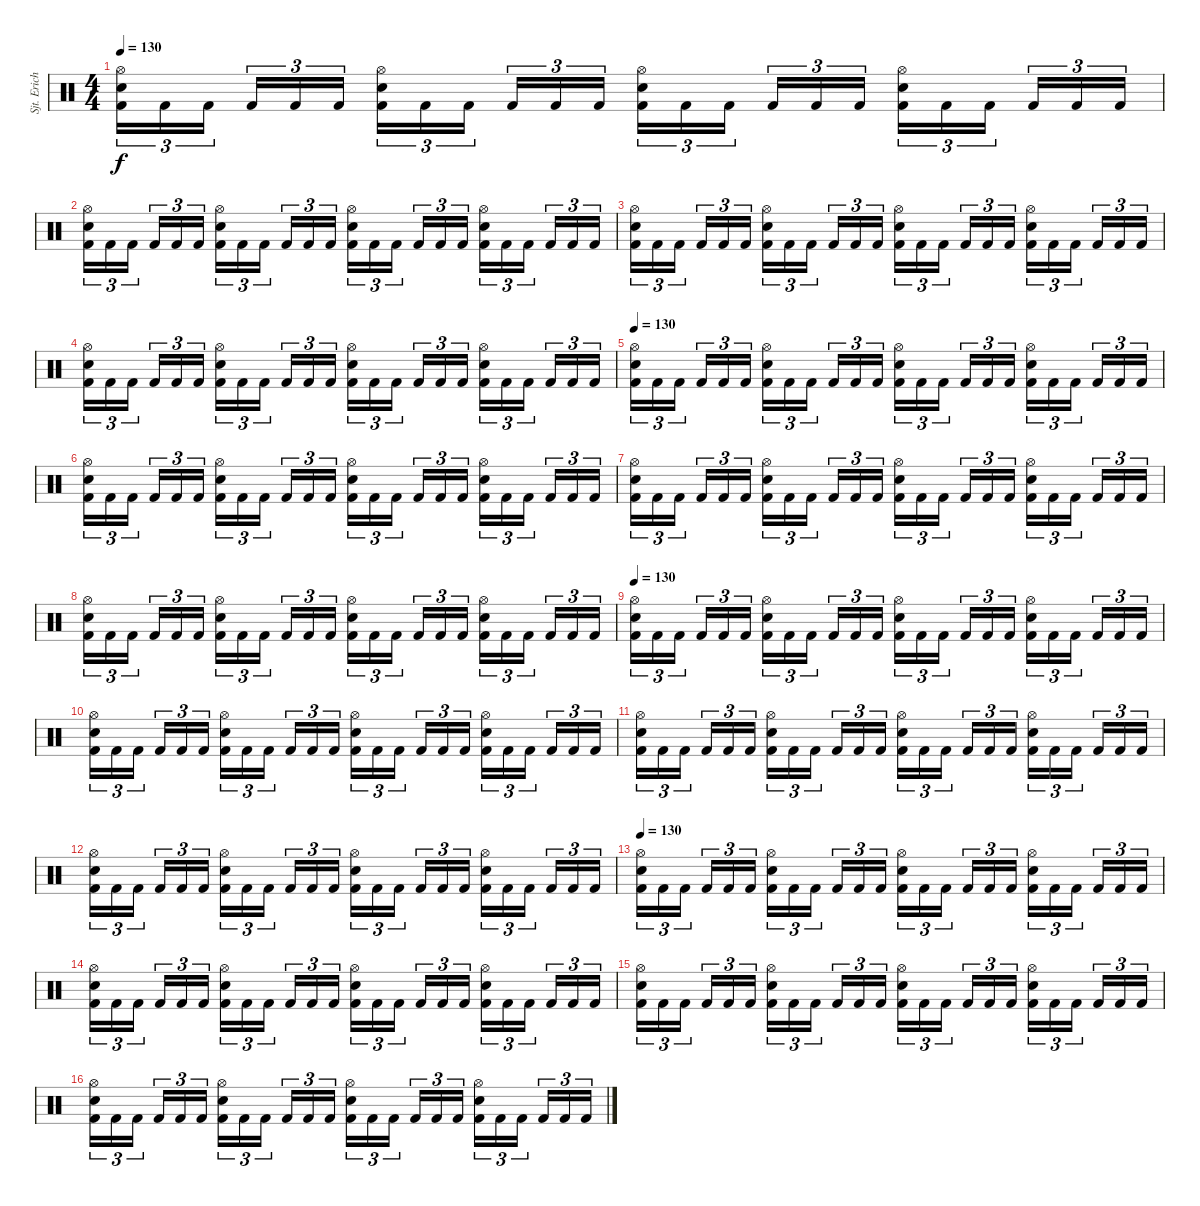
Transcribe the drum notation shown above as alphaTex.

\track ("Sjt. Erichsen" "Sjt. Erich") {instrument percussion}
\staff {score}
\articulation defaults
\ts (4 4)
\tempo 130
\clef neutral
\ks c
("Hi-Hat (open)" "Electric Snare (hit)" "Kick (hit) 2").16{tu (3 2) dy f} "Kick (hit) 2".16{tu (3 2)} "Kick (hit) 2".16{tu (3 2)} "Kick (hit) 2".16{tu (3 2)} "Kick (hit) 2".16{tu (3 2)} "Kick (hit) 2".16{tu (3 2)} ("Hi-Hat (open)" "Electric Snare (hit)" "Kick (hit) 2").16{tu (3 2)} "Kick (hit) 2".16{tu (3 2)} "Kick (hit) 2".16{tu (3 2)} "Kick (hit) 2".16{tu (3 2)} "Kick (hit) 2".16{tu (3 2)} "Kick (hit) 2".16{tu (3 2)} ("Hi-Hat (open)" "Electric Snare (hit)" "Kick (hit) 2").16{tu (3 2)} "Kick (hit) 2".16{tu (3 2)} "Kick (hit) 2".16{tu (3 2)} "Kick (hit) 2".16{tu (3 2)} "Kick (hit) 2".16{tu (3 2)} "Kick (hit) 2".16{tu (3 2)} ("Hi-Hat (open)" "Electric Snare (hit)" "Kick (hit) 2").16{tu (3 2)} "Kick (hit) 2".16{tu (3 2)} "Kick (hit) 2".16{tu (3 2)} "Kick (hit) 2".16{tu (3 2)} "Kick (hit) 2".16{tu (3 2)} "Kick (hit) 2".16{tu (3 2)} |
("Hi-Hat (open)" "Electric Snare (hit)" "Kick (hit) 2").16{tu (3 2)} "Kick (hit) 2".16{tu (3 2)} "Kick (hit) 2".16{tu (3 2)} "Kick (hit) 2".16{tu (3 2)} "Kick (hit) 2".16{tu (3 2)} "Kick (hit) 2".16{tu (3 2)} ("Hi-Hat (open)" "Electric Snare (hit)" "Kick (hit) 2").16{tu (3 2)} "Kick (hit) 2".16{tu (3 2)} "Kick (hit) 2".16{tu (3 2)} "Kick (hit) 2".16{tu (3 2)} "Kick (hit) 2".16{tu (3 2)} "Kick (hit) 2".16{tu (3 2)} ("Hi-Hat (open)" "Electric Snare (hit)" "Kick (hit) 2").16{tu (3 2)} "Kick (hit) 2".16{tu (3 2)} "Kick (hit) 2".16{tu (3 2)} "Kick (hit) 2".16{tu (3 2)} "Kick (hit) 2".16{tu (3 2)} "Kick (hit) 2".16{tu (3 2)} ("Hi-Hat (open)" "Electric Snare (hit)" "Kick (hit) 2").16{tu (3 2)} "Kick (hit) 2".16{tu (3 2)} "Kick (hit) 2".16{tu (3 2)} "Kick (hit) 2".16{tu (3 2)} "Kick (hit) 2".16{tu (3 2)} "Kick (hit) 2".16{tu (3 2)} |
("Hi-Hat (open)" "Electric Snare (hit)" "Kick (hit) 2").16{tu (3 2)} "Kick (hit) 2".16{tu (3 2)} "Kick (hit) 2".16{tu (3 2)} "Kick (hit) 2".16{tu (3 2)} "Kick (hit) 2".16{tu (3 2)} "Kick (hit) 2".16{tu (3 2)} ("Hi-Hat (open)" "Electric Snare (hit)" "Kick (hit) 2").16{tu (3 2)} "Kick (hit) 2".16{tu (3 2)} "Kick (hit) 2".16{tu (3 2)} "Kick (hit) 2".16{tu (3 2)} "Kick (hit) 2".16{tu (3 2)} "Kick (hit) 2".16{tu (3 2)} ("Hi-Hat (open)" "Electric Snare (hit)" "Kick (hit) 2").16{tu (3 2)} "Kick (hit) 2".16{tu (3 2)} "Kick (hit) 2".16{tu (3 2)} "Kick (hit) 2".16{tu (3 2)} "Kick (hit) 2".16{tu (3 2)} "Kick (hit) 2".16{tu (3 2)} ("Hi-Hat (open)" "Electric Snare (hit)" "Kick (hit) 2").16{tu (3 2)} "Kick (hit) 2".16{tu (3 2)} "Kick (hit) 2".16{tu (3 2)} "Kick (hit) 2".16{tu (3 2)} "Kick (hit) 2".16{tu (3 2)} "Kick (hit) 2".16{tu (3 2)} |
("Hi-Hat (open)" "Electric Snare (hit)" "Kick (hit) 2").16{tu (3 2)} "Kick (hit) 2".16{tu (3 2)} "Kick (hit) 2".16{tu (3 2)} "Kick (hit) 2".16{tu (3 2)} "Kick (hit) 2".16{tu (3 2)} "Kick (hit) 2".16{tu (3 2)} ("Hi-Hat (open)" "Electric Snare (hit)" "Kick (hit) 2").16{tu (3 2)} "Kick (hit) 2".16{tu (3 2)} "Kick (hit) 2".16{tu (3 2)} "Kick (hit) 2".16{tu (3 2)} "Kick (hit) 2".16{tu (3 2)} "Kick (hit) 2".16{tu (3 2)} ("Hi-Hat (open)" "Electric Snare (hit)" "Kick (hit) 2").16{tu (3 2)} "Kick (hit) 2".16{tu (3 2)} "Kick (hit) 2".16{tu (3 2)} "Kick (hit) 2".16{tu (3 2)} "Kick (hit) 2".16{tu (3 2)} "Kick (hit) 2".16{tu (3 2)} ("Hi-Hat (open)" "Electric Snare (hit)" "Kick (hit) 2").16{tu (3 2)} "Kick (hit) 2".16{tu (3 2)} "Kick (hit) 2".16{tu (3 2)} "Kick (hit) 2".16{tu (3 2)} "Kick (hit) 2".16{tu (3 2)} "Kick (hit) 2".16{tu (3 2)} |
\tempo 130
("Hi-Hat (open)" "Electric Snare (hit)" "Kick (hit) 2").16{tu (3 2)} "Kick (hit) 2".16{tu (3 2)} "Kick (hit) 2".16{tu (3 2)} "Kick (hit) 2".16{tu (3 2)} "Kick (hit) 2".16{tu (3 2)} "Kick (hit) 2".16{tu (3 2)} ("Hi-Hat (open)" "Electric Snare (hit)" "Kick (hit) 2").16{tu (3 2)} "Kick (hit) 2".16{tu (3 2)} "Kick (hit) 2".16{tu (3 2)} "Kick (hit) 2".16{tu (3 2)} "Kick (hit) 2".16{tu (3 2)} "Kick (hit) 2".16{tu (3 2)} ("Hi-Hat (open)" "Electric Snare (hit)" "Kick (hit) 2").16{tu (3 2)} "Kick (hit) 2".16{tu (3 2)} "Kick (hit) 2".16{tu (3 2)} "Kick (hit) 2".16{tu (3 2)} "Kick (hit) 2".16{tu (3 2)} "Kick (hit) 2".16{tu (3 2)} ("Hi-Hat (open)" "Electric Snare (hit)" "Kick (hit) 2").16{tu (3 2)} "Kick (hit) 2".16{tu (3 2)} "Kick (hit) 2".16{tu (3 2)} "Kick (hit) 2".16{tu (3 2)} "Kick (hit) 2".16{tu (3 2)} "Kick (hit) 2".16{tu (3 2)} |
("Hi-Hat (open)" "Electric Snare (hit)" "Kick (hit) 2").16{tu (3 2)} "Kick (hit) 2".16{tu (3 2)} "Kick (hit) 2".16{tu (3 2)} "Kick (hit) 2".16{tu (3 2)} "Kick (hit) 2".16{tu (3 2)} "Kick (hit) 2".16{tu (3 2)} ("Hi-Hat (open)" "Electric Snare (hit)" "Kick (hit) 2").16{tu (3 2)} "Kick (hit) 2".16{tu (3 2)} "Kick (hit) 2".16{tu (3 2)} "Kick (hit) 2".16{tu (3 2)} "Kick (hit) 2".16{tu (3 2)} "Kick (hit) 2".16{tu (3 2)} ("Hi-Hat (open)" "Electric Snare (hit)" "Kick (hit) 2").16{tu (3 2)} "Kick (hit) 2".16{tu (3 2)} "Kick (hit) 2".16{tu (3 2)} "Kick (hit) 2".16{tu (3 2)} "Kick (hit) 2".16{tu (3 2)} "Kick (hit) 2".16{tu (3 2)} ("Hi-Hat (open)" "Electric Snare (hit)" "Kick (hit) 2").16{tu (3 2)} "Kick (hit) 2".16{tu (3 2)} "Kick (hit) 2".16{tu (3 2)} "Kick (hit) 2".16{tu (3 2)} "Kick (hit) 2".16{tu (3 2)} "Kick (hit) 2".16{tu (3 2)} |
("Hi-Hat (open)" "Electric Snare (hit)" "Kick (hit) 2").16{tu (3 2)} "Kick (hit) 2".16{tu (3 2)} "Kick (hit) 2".16{tu (3 2)} "Kick (hit) 2".16{tu (3 2)} "Kick (hit) 2".16{tu (3 2)} "Kick (hit) 2".16{tu (3 2)} ("Hi-Hat (open)" "Electric Snare (hit)" "Kick (hit) 2").16{tu (3 2)} "Kick (hit) 2".16{tu (3 2)} "Kick (hit) 2".16{tu (3 2)} "Kick (hit) 2".16{tu (3 2)} "Kick (hit) 2".16{tu (3 2)} "Kick (hit) 2".16{tu (3 2)} ("Hi-Hat (open)" "Electric Snare (hit)" "Kick (hit) 2").16{tu (3 2)} "Kick (hit) 2".16{tu (3 2)} "Kick (hit) 2".16{tu (3 2)} "Kick (hit) 2".16{tu (3 2)} "Kick (hit) 2".16{tu (3 2)} "Kick (hit) 2".16{tu (3 2)} ("Hi-Hat (open)" "Electric Snare (hit)" "Kick (hit) 2").16{tu (3 2)} "Kick (hit) 2".16{tu (3 2)} "Kick (hit) 2".16{tu (3 2)} "Kick (hit) 2".16{tu (3 2)} "Kick (hit) 2".16{tu (3 2)} "Kick (hit) 2".16{tu (3 2)} |
("Hi-Hat (open)" "Electric Snare (hit)" "Kick (hit) 2").16{tu (3 2)} "Kick (hit) 2".16{tu (3 2)} "Kick (hit) 2".16{tu (3 2)} "Kick (hit) 2".16{tu (3 2)} "Kick (hit) 2".16{tu (3 2)} "Kick (hit) 2".16{tu (3 2)} ("Hi-Hat (open)" "Electric Snare (hit)" "Kick (hit) 2").16{tu (3 2)} "Kick (hit) 2".16{tu (3 2)} "Kick (hit) 2".16{tu (3 2)} "Kick (hit) 2".16{tu (3 2)} "Kick (hit) 2".16{tu (3 2)} "Kick (hit) 2".16{tu (3 2)} ("Hi-Hat (open)" "Electric Snare (hit)" "Kick (hit) 2").16{tu (3 2)} "Kick (hit) 2".16{tu (3 2)} "Kick (hit) 2".16{tu (3 2)} "Kick (hit) 2".16{tu (3 2)} "Kick (hit) 2".16{tu (3 2)} "Kick (hit) 2".16{tu (3 2)} ("Hi-Hat (open)" "Electric Snare (hit)" "Kick (hit) 2").16{tu (3 2)} "Kick (hit) 2".16{tu (3 2)} "Kick (hit) 2".16{tu (3 2)} "Kick (hit) 2".16{tu (3 2)} "Kick (hit) 2".16{tu (3 2)} "Kick (hit) 2".16{tu (3 2)} |
\tempo 130
("Hi-Hat (open)" "Electric Snare (hit)" "Kick (hit) 2").16{tu (3 2)} "Kick (hit) 2".16{tu (3 2)} "Kick (hit) 2".16{tu (3 2)} "Kick (hit) 2".16{tu (3 2)} "Kick (hit) 2".16{tu (3 2)} "Kick (hit) 2".16{tu (3 2)} ("Hi-Hat (open)" "Electric Snare (hit)" "Kick (hit) 2").16{tu (3 2)} "Kick (hit) 2".16{tu (3 2)} "Kick (hit) 2".16{tu (3 2)} "Kick (hit) 2".16{tu (3 2)} "Kick (hit) 2".16{tu (3 2)} "Kick (hit) 2".16{tu (3 2)} ("Hi-Hat (open)" "Electric Snare (hit)" "Kick (hit) 2").16{tu (3 2)} "Kick (hit) 2".16{tu (3 2)} "Kick (hit) 2".16{tu (3 2)} "Kick (hit) 2".16{tu (3 2)} "Kick (hit) 2".16{tu (3 2)} "Kick (hit) 2".16{tu (3 2)} ("Hi-Hat (open)" "Electric Snare (hit)" "Kick (hit) 2").16{tu (3 2)} "Kick (hit) 2".16{tu (3 2)} "Kick (hit) 2".16{tu (3 2)} "Kick (hit) 2".16{tu (3 2)} "Kick (hit) 2".16{tu (3 2)} "Kick (hit) 2".16{tu (3 2)} |
("Hi-Hat (open)" "Electric Snare (hit)" "Kick (hit) 2").16{tu (3 2)} "Kick (hit) 2".16{tu (3 2)} "Kick (hit) 2".16{tu (3 2)} "Kick (hit) 2".16{tu (3 2)} "Kick (hit) 2".16{tu (3 2)} "Kick (hit) 2".16{tu (3 2)} ("Hi-Hat (open)" "Electric Snare (hit)" "Kick (hit) 2").16{tu (3 2)} "Kick (hit) 2".16{tu (3 2)} "Kick (hit) 2".16{tu (3 2)} "Kick (hit) 2".16{tu (3 2)} "Kick (hit) 2".16{tu (3 2)} "Kick (hit) 2".16{tu (3 2)} ("Hi-Hat (open)" "Electric Snare (hit)" "Kick (hit) 2").16{tu (3 2)} "Kick (hit) 2".16{tu (3 2)} "Kick (hit) 2".16{tu (3 2)} "Kick (hit) 2".16{tu (3 2)} "Kick (hit) 2".16{tu (3 2)} "Kick (hit) 2".16{tu (3 2)} ("Hi-Hat (open)" "Electric Snare (hit)" "Kick (hit) 2").16{tu (3 2)} "Kick (hit) 2".16{tu (3 2)} "Kick (hit) 2".16{tu (3 2)} "Kick (hit) 2".16{tu (3 2)} "Kick (hit) 2".16{tu (3 2)} "Kick (hit) 2".16{tu (3 2)} |
("Hi-Hat (open)" "Electric Snare (hit)" "Kick (hit) 2").16{tu (3 2)} "Kick (hit) 2".16{tu (3 2)} "Kick (hit) 2".16{tu (3 2)} "Kick (hit) 2".16{tu (3 2)} "Kick (hit) 2".16{tu (3 2)} "Kick (hit) 2".16{tu (3 2)} ("Hi-Hat (open)" "Electric Snare (hit)" "Kick (hit) 2").16{tu (3 2)} "Kick (hit) 2".16{tu (3 2)} "Kick (hit) 2".16{tu (3 2)} "Kick (hit) 2".16{tu (3 2)} "Kick (hit) 2".16{tu (3 2)} "Kick (hit) 2".16{tu (3 2)} ("Hi-Hat (open)" "Electric Snare (hit)" "Kick (hit) 2").16{tu (3 2)} "Kick (hit) 2".16{tu (3 2)} "Kick (hit) 2".16{tu (3 2)} "Kick (hit) 2".16{tu (3 2)} "Kick (hit) 2".16{tu (3 2)} "Kick (hit) 2".16{tu (3 2)} ("Hi-Hat (open)" "Electric Snare (hit)" "Kick (hit) 2").16{tu (3 2)} "Kick (hit) 2".16{tu (3 2)} "Kick (hit) 2".16{tu (3 2)} "Kick (hit) 2".16{tu (3 2)} "Kick (hit) 2".16{tu (3 2)} "Kick (hit) 2".16{tu (3 2)} |
("Hi-Hat (open)" "Electric Snare (hit)" "Kick (hit) 2").16{tu (3 2)} "Kick (hit) 2".16{tu (3 2)} "Kick (hit) 2".16{tu (3 2)} "Kick (hit) 2".16{tu (3 2)} "Kick (hit) 2".16{tu (3 2)} "Kick (hit) 2".16{tu (3 2)} ("Hi-Hat (open)" "Electric Snare (hit)" "Kick (hit) 2").16{tu (3 2)} "Kick (hit) 2".16{tu (3 2)} "Kick (hit) 2".16{tu (3 2)} "Kick (hit) 2".16{tu (3 2)} "Kick (hit) 2".16{tu (3 2)} "Kick (hit) 2".16{tu (3 2)} ("Hi-Hat (open)" "Electric Snare (hit)" "Kick (hit) 2").16{tu (3 2)} "Kick (hit) 2".16{tu (3 2)} "Kick (hit) 2".16{tu (3 2)} "Kick (hit) 2".16{tu (3 2)} "Kick (hit) 2".16{tu (3 2)} "Kick (hit) 2".16{tu (3 2)} ("Hi-Hat (open)" "Electric Snare (hit)" "Kick (hit) 2").16{tu (3 2)} "Kick (hit) 2".16{tu (3 2)} "Kick (hit) 2".16{tu (3 2)} "Kick (hit) 2".16{tu (3 2)} "Kick (hit) 2".16{tu (3 2)} "Kick (hit) 2".16{tu (3 2)} |
\tempo 130
("Hi-Hat (open)" "Electric Snare (hit)" "Kick (hit) 2").16{tu (3 2)} "Kick (hit) 2".16{tu (3 2)} "Kick (hit) 2".16{tu (3 2)} "Kick (hit) 2".16{tu (3 2)} "Kick (hit) 2".16{tu (3 2)} "Kick (hit) 2".16{tu (3 2)} ("Hi-Hat (open)" "Electric Snare (hit)" "Kick (hit) 2").16{tu (3 2)} "Kick (hit) 2".16{tu (3 2)} "Kick (hit) 2".16{tu (3 2)} "Kick (hit) 2".16{tu (3 2)} "Kick (hit) 2".16{tu (3 2)} "Kick (hit) 2".16{tu (3 2)} ("Hi-Hat (open)" "Electric Snare (hit)" "Kick (hit) 2").16{tu (3 2)} "Kick (hit) 2".16{tu (3 2)} "Kick (hit) 2".16{tu (3 2)} "Kick (hit) 2".16{tu (3 2)} "Kick (hit) 2".16{tu (3 2)} "Kick (hit) 2".16{tu (3 2)} ("Hi-Hat (open)" "Electric Snare (hit)" "Kick (hit) 2").16{tu (3 2)} "Kick (hit) 2".16{tu (3 2)} "Kick (hit) 2".16{tu (3 2)} "Kick (hit) 2".16{tu (3 2)} "Kick (hit) 2".16{tu (3 2)} "Kick (hit) 2".16{tu (3 2)} |
("Hi-Hat (open)" "Electric Snare (hit)" "Kick (hit) 2").16{tu (3 2)} "Kick (hit) 2".16{tu (3 2)} "Kick (hit) 2".16{tu (3 2)} "Kick (hit) 2".16{tu (3 2)} "Kick (hit) 2".16{tu (3 2)} "Kick (hit) 2".16{tu (3 2)} ("Hi-Hat (open)" "Electric Snare (hit)" "Kick (hit) 2").16{tu (3 2)} "Kick (hit) 2".16{tu (3 2)} "Kick (hit) 2".16{tu (3 2)} "Kick (hit) 2".16{tu (3 2)} "Kick (hit) 2".16{tu (3 2)} "Kick (hit) 2".16{tu (3 2)} ("Hi-Hat (open)" "Electric Snare (hit)" "Kick (hit) 2").16{tu (3 2)} "Kick (hit) 2".16{tu (3 2)} "Kick (hit) 2".16{tu (3 2)} "Kick (hit) 2".16{tu (3 2)} "Kick (hit) 2".16{tu (3 2)} "Kick (hit) 2".16{tu (3 2)} ("Hi-Hat (open)" "Electric Snare (hit)" "Kick (hit) 2").16{tu (3 2)} "Kick (hit) 2".16{tu (3 2)} "Kick (hit) 2".16{tu (3 2)} "Kick (hit) 2".16{tu (3 2)} "Kick (hit) 2".16{tu (3 2)} "Kick (hit) 2".16{tu (3 2)} |
("Hi-Hat (open)" "Electric Snare (hit)" "Kick (hit) 2").16{tu (3 2)} "Kick (hit) 2".16{tu (3 2)} "Kick (hit) 2".16{tu (3 2)} "Kick (hit) 2".16{tu (3 2)} "Kick (hit) 2".16{tu (3 2)} "Kick (hit) 2".16{tu (3 2)} ("Hi-Hat (open)" "Electric Snare (hit)" "Kick (hit) 2").16{tu (3 2)} "Kick (hit) 2".16{tu (3 2)} "Kick (hit) 2".16{tu (3 2)} "Kick (hit) 2".16{tu (3 2)} "Kick (hit) 2".16{tu (3 2)} "Kick (hit) 2".16{tu (3 2)} ("Hi-Hat (open)" "Electric Snare (hit)" "Kick (hit) 2").16{tu (3 2)} "Kick (hit) 2".16{tu (3 2)} "Kick (hit) 2".16{tu (3 2)} "Kick (hit) 2".16{tu (3 2)} "Kick (hit) 2".16{tu (3 2)} "Kick (hit) 2".16{tu (3 2)} ("Hi-Hat (open)" "Electric Snare (hit)" "Kick (hit) 2").16{tu (3 2)} "Kick (hit) 2".16{tu (3 2)} "Kick (hit) 2".16{tu (3 2)} "Kick (hit) 2".16{tu (3 2)} "Kick (hit) 2".16{tu (3 2)} "Kick (hit) 2".16{tu (3 2)} |
("Hi-Hat (open)" "Electric Snare (hit)" "Kick (hit) 2").16{tu (3 2)} "Kick (hit) 2".16{tu (3 2)} "Kick (hit) 2".16{tu (3 2)} "Kick (hit) 2".16{tu (3 2)} "Kick (hit) 2".16{tu (3 2)} "Kick (hit) 2".16{tu (3 2)} ("Hi-Hat (open)" "Electric Snare (hit)" "Kick (hit) 2").16{tu (3 2)} "Kick (hit) 2".16{tu (3 2)} "Kick (hit) 2".16{tu (3 2)} "Kick (hit) 2".16{tu (3 2)} "Kick (hit) 2".16{tu (3 2)} "Kick (hit) 2".16{tu (3 2)} ("Hi-Hat (open)" "Electric Snare (hit)" "Kick (hit) 2").16{tu (3 2)} "Kick (hit) 2".16{tu (3 2)} "Kick (hit) 2".16{tu (3 2)} "Kick (hit) 2".16{tu (3 2)} "Kick (hit) 2".16{tu (3 2)} "Kick (hit) 2".16{tu (3 2)} ("Hi-Hat (open)" "Electric Snare (hit)" "Kick (hit) 2").16{tu (3 2)} "Kick (hit) 2".16{tu (3 2)} "Kick (hit) 2".16{tu (3 2)} "Kick (hit) 2".16{tu (3 2)} "Kick (hit) 2".16{tu (3 2)} "Kick (hit) 2".16{tu (3 2)}
